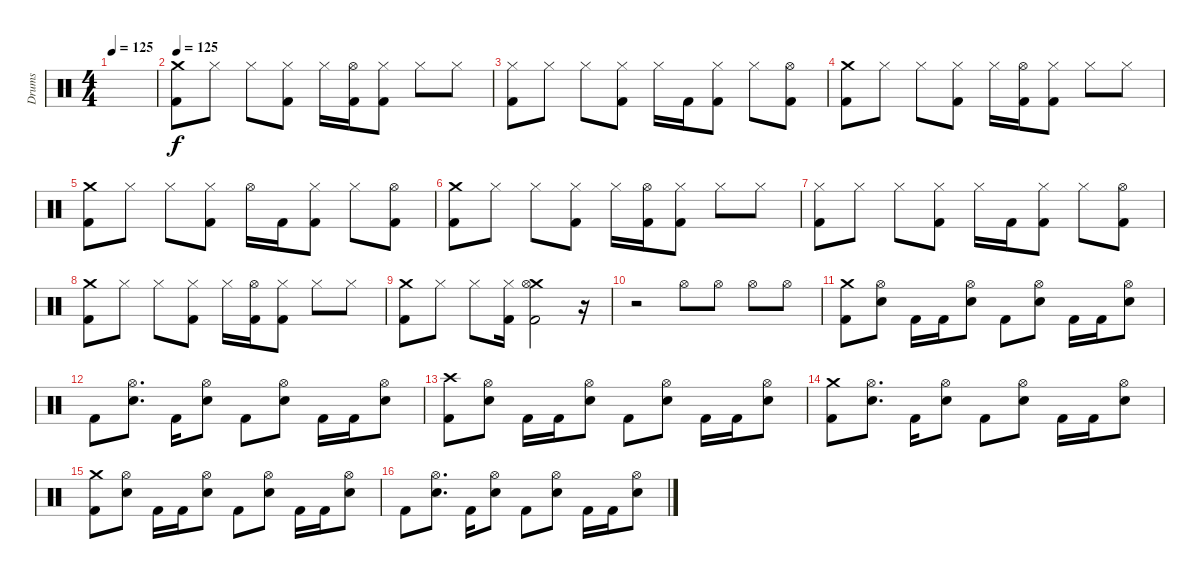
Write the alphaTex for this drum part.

\track ("Drums" "Drums") {instrument percussion}
\staff {score}
\articulation defaults
\ts (4 4)
\tempo 125
\clef neutral
\ks c
|
\tempo 125
("Crash medium (hit)" "Kick (hit) 2").8 "Hi-Hat (closed)".8 "Hi-Hat (closed)".8 ("Hi-Hat (closed)" "Kick (hit) 2").8 "Hi-Hat (closed)".16 ("Hi-Hat (open)" "Kick (hit) 2").16 ("Hi-Hat (closed)" "Kick (hit) 2").8 "Hi-Hat (closed)".8 "Hi-Hat (closed)".8 |
("Hi-Hat (closed)" "Kick (hit) 2").8 "Hi-Hat (closed)".8 "Hi-Hat (closed)".8 ("Hi-Hat (closed)" "Kick (hit) 2").8 "Hi-Hat (closed)".16 "Kick (hit) 2".16 ("Hi-Hat (closed)" "Kick (hit) 2").8 "Hi-Hat (closed)".8 ("Hi-Hat (open)" "Kick (hit) 2").8 |
("Crash medium (hit)" "Kick (hit) 2").8 "Hi-Hat (closed)".8 "Hi-Hat (closed)".8 ("Hi-Hat (closed)" "Kick (hit) 2").8 "Hi-Hat (closed)".16 ("Hi-Hat (open)" "Kick (hit) 2").16 ("Hi-Hat (closed)" "Kick (hit) 2").8 "Hi-Hat (closed)".8 "Hi-Hat (closed)".8 |
("Crash medium (hit)" "Kick (hit) 2").8 "Hi-Hat (closed)".8 "Hi-Hat (closed)".8 ("Hi-Hat (closed)" "Kick (hit) 2").8 "Hi-Hat (open)".16 "Kick (hit) 2".16 ("Hi-Hat (closed)" "Kick (hit) 2").8 "Hi-Hat (closed)".8 ("Hi-Hat (open)" "Kick (hit) 2").8 |
("Crash medium (hit)" "Kick (hit) 2").8 "Hi-Hat (closed)".8 "Hi-Hat (closed)".8 ("Hi-Hat (closed)" "Kick (hit) 2").8 "Hi-Hat (closed)".16 ("Hi-Hat (open)" "Kick (hit) 2").16 ("Hi-Hat (closed)" "Kick (hit) 2").8 "Hi-Hat (closed)".8 "Hi-Hat (closed)".8 |
("Hi-Hat (closed)" "Kick (hit) 2").8 "Hi-Hat (closed)".8 "Hi-Hat (closed)".8 ("Hi-Hat (closed)" "Kick (hit) 2").8 "Hi-Hat (closed)".16 "Kick (hit) 2".16 ("Hi-Hat (closed)" "Kick (hit) 2").8 "Hi-Hat (closed)".8 ("Hi-Hat (open)" "Kick (hit) 2").8 |
("Crash medium (hit)" "Kick (hit) 2").8 "Hi-Hat (closed)".8 "Hi-Hat (closed)".8 ("Hi-Hat (closed)" "Kick (hit) 2").8 "Hi-Hat (closed)".16 ("Hi-Hat (open)" "Kick (hit) 2").16 ("Hi-Hat (closed)" "Kick (hit) 2").8 "Hi-Hat (closed)".8 "Hi-Hat (closed)".8 |
("Crash medium (hit)" "Kick (hit) 2").8 "Hi-Hat (closed)".8 "Hi-Hat (closed)".8 ("Hi-Hat (closed)" "Kick (hit) 2").16 ("Crash medium (hit)" "Hi-Hat (open)" "Kick (hit) 2").2 r.16 |
r.2 "Hi-Hat (open)".8 "Hi-Hat (open)".8 "Hi-Hat (open)".8 "Hi-Hat (open)".8 |
("Crash medium (hit)" "Kick (hit) 2").8 ("Hi-Hat (open)" "Snare (hit) 2").8 "Kick (hit) 2".16 "Kick (hit) 2".16 ("Hi-Hat (open)" "Snare (hit) 2").8 "Kick (hit) 2".8 ("Hi-Hat (open)" "Snare (hit) 2").8 "Kick (hit) 2".16 "Kick (hit) 2".16 ("Hi-Hat (open)" "Snare (hit) 2").8 |
"Kick (hit) 2".8 ("Hi-Hat (open)" "Snare (hit) 2").8{d} "Kick (hit) 2".16 ("Hi-Hat (open)" "Snare (hit) 2").8 "Kick (hit) 2".8 ("Hi-Hat (open)" "Snare (hit) 2").8 "Kick (hit) 2".16 "Kick (hit) 2".16 ("Hi-Hat (open)" "Snare (hit) 2").8 |
("Crash high (hit)" "Kick (hit) 2").8 ("Hi-Hat (open)" "Snare (hit) 2").8 "Kick (hit) 2".16 "Kick (hit) 2".16 ("Hi-Hat (open)" "Snare (hit) 2").8 "Kick (hit) 2".8 ("Hi-Hat (open)" "Snare (hit) 2").8 "Kick (hit) 2".16 "Kick (hit) 2".16 ("Hi-Hat (open)" "Snare (hit) 2").8 |
("Crash medium (hit)" "Kick (hit) 2").8 ("Hi-Hat (open)" "Snare (hit) 2").8{d} "Kick (hit) 2".16 ("Hi-Hat (open)" "Snare (hit) 2").8 "Kick (hit) 2".8 ("Hi-Hat (open)" "Snare (hit) 2").8 "Kick (hit) 2".16 "Kick (hit) 2".16 ("Hi-Hat (open)" "Snare (hit) 2").8 |
("Crash medium (hit)" "Kick (hit) 2").8 ("Hi-Hat (open)" "Snare (hit) 2").8 "Kick (hit) 2".16 "Kick (hit) 2".16 ("Hi-Hat (open)" "Snare (hit) 2").8 "Kick (hit) 2".8 ("Hi-Hat (open)" "Snare (hit) 2").8 "Kick (hit) 2".16 "Kick (hit) 2".16 ("Hi-Hat (open)" "Snare (hit) 2").8 |
"Kick (hit) 2".8 ("Hi-Hat (open)" "Snare (hit) 2").8{d} "Kick (hit) 2".16 ("Hi-Hat (open)" "Snare (hit) 2").8 "Kick (hit) 2".8 ("Hi-Hat (open)" "Snare (hit) 2").8 "Kick (hit) 2".16 "Kick (hit) 2".16 ("Hi-Hat (open)" "Snare (hit) 2").8
